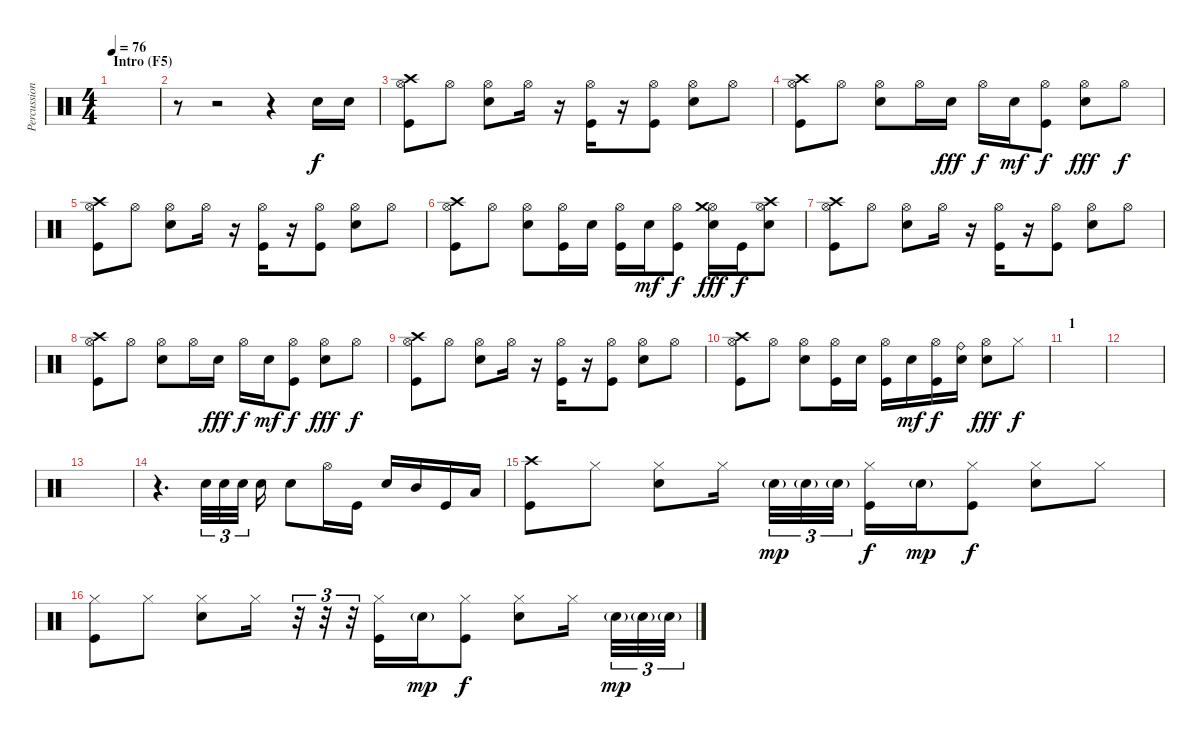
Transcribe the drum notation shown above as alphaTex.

\track ("Percussions" "Percussion") {instrument percussion}
\staff {score}
\articulation defaults
\ts (4 4)
\section ("" "Intro (F5)")
\tempo 76
\clef neutral
\ks c
|
r.8 r.2 r.4 "Snare (hit) 2".16 "Snare (hit) 2".16 |
("Crash high (hit)" "Hi-Hat (open)" "Kick (hit)").8 "Hi-Hat (open)".8 ("Hi-Hat (open)" "Snare (hit) 2").8 "Hi-Hat (open)".16 r.16 ("Hi-Hat (open)" "Kick (hit)").16 r.16 ("Hi-Hat (open)" "Kick (hit)").8 ("Hi-Hat (open)" "Snare (hit) 2").8 "Hi-Hat (open)".8 |
("Crash high (hit)" "Hi-Hat (open)" "Kick (hit)").8 "Hi-Hat (open)".8 ("Hi-Hat (open)" "Snare (hit) 2").8 "Hi-Hat (open)".16 "Snare (hit) 2".16{dy fff} "Hi-Hat (open)".16{dy f} "Snare (hit) 2".16{dy mf} ("Hi-Hat (open)" "Kick (hit)").8{dy f} ("Hi-Hat (open)" "Snare (hit) 2").8{dy fff} "Hi-Hat (open)".8{dy f} |
("Crash high (hit)" "Hi-Hat (open)" "Kick (hit)").8 "Hi-Hat (open)".8 ("Hi-Hat (open)" "Snare (hit) 2").8 "Hi-Hat (open)".16 r.16 ("Hi-Hat (open)" "Kick (hit)").16 r.16 ("Hi-Hat (open)" "Kick (hit)").8 ("Hi-Hat (open)" "Snare (hit) 2").8 "Hi-Hat (open)".8 |
("Crash high (hit)" "Hi-Hat (open)" "Kick (hit)").8 "Hi-Hat (open)".8 ("Hi-Hat (open)" "Snare (hit) 2").8 ("Hi-Hat (open)" "Kick (hit)").16 "Snare (hit) 2".16 ("Hi-Hat (open)" "Kick (hit)").16 "Snare (hit) 2".16{dy mf} ("Hi-Hat (open)" "Kick (hit)").8{dy f} ("Hi-Hat (open)" "Crash medium (hit)" "Snare (hit) 2").16{dy fff} "Kick (hit)".16{dy f} ("Hi-Hat (open)" "Crash high (hit)" "Snare (hit) 2").8 |
("Crash high (hit)" "Hi-Hat (open)" "Kick (hit)").8 "Hi-Hat (open)".8 ("Hi-Hat (open)" "Snare (hit) 2").8 "Hi-Hat (open)".16 r.16 ("Hi-Hat (open)" "Kick (hit)").16 r.16 ("Hi-Hat (open)" "Kick (hit)").8 ("Hi-Hat (open)" "Snare (hit) 2").8 "Hi-Hat (open)".8 |
("Crash high (hit)" "Hi-Hat (open)" "Kick (hit)").8 "Hi-Hat (open)".8 ("Hi-Hat (open)" "Snare (hit) 2").8 "Hi-Hat (open)".16 "Snare (hit) 2".16{dy fff} "Hi-Hat (open)".16{dy f} "Snare (hit) 2".16{dy mf} ("Hi-Hat (open)" "Kick (hit)").8{dy f} ("Hi-Hat (open)" "Snare (hit) 2").8{dy fff} "Hi-Hat (open)".8{dy f} |
("Crash high (hit)" "Hi-Hat (open)" "Kick (hit)").8 "Hi-Hat (open)".8 ("Hi-Hat (open)" "Snare (hit) 2").8 "Hi-Hat (open)".16 r.16 ("Hi-Hat (open)" "Kick (hit)").16 r.16 ("Hi-Hat (open)" "Kick (hit)").8 ("Hi-Hat (open)" "Snare (hit) 2").8 "Hi-Hat (open)".8 |
("Crash high (hit)" "Hi-Hat (open)" "Kick (hit)").8 "Hi-Hat (open)".8 ("Hi-Hat (open)" "Snare (hit) 2").8 ("Hi-Hat (open)" "Kick (hit)").16 "Snare (hit) 2".16 ("Hi-Hat (open)" "Kick (hit)").16 "Snare (hit) 2".16{dy mf} ("Hi-Hat (open)" "Kick (hit)").16{dy f} ("Ride (bell)" "Snare (hit) 2").16 ("Hi-Hat (open)" "Snare (hit) 2").8{dy fff} "Hi-Hat (closed)".8{dy f} |
\section ("" "1")
|
|
|
r.4{d} "Snare (hit) 2".32{tu (3 2)} "Snare (hit) 2".32{tu (3 2)} "Snare (hit) 2".32{tu (3 2)} "Snare (hit) 2".16 "Snare (hit) 2".8 "Hi-Hat (open)".16 "Kick (hit)".16 "Snare (hit) 2".16 "Mid Tom (hit)".16 "Kick (hit)".16 "Low Tom (hit)".16 |
("Crash high (hit)" "Kick (hit)").8 "Hi-Hat (closed)".8 ("Hi-Hat (closed)" "Snare (hit) 2").8 "Hi-Hat (closed)".16 "Snare (hit) 2"{g}.32{tu (3 2) dy mp} "Snare (hit) 2"{g}.32{tu (3 2)} "Snare (hit) 2"{g}.32{tu (3 2)} ("Hi-Hat (closed)" "Kick (hit)").16{dy f} "Snare (hit) 2"{g}.16{dy mp} ("Hi-Hat (closed)" "Kick (hit)").8{dy f} ("Hi-Hat (closed)" "Snare (hit) 2").8 "Hi-Hat (closed)".8 |
("Hi-Hat (closed)" "Kick (hit)").8 "Hi-Hat (closed)".8 ("Hi-Hat (closed)" "Snare (hit) 2").8 "Hi-Hat (closed)".16 r.32{tu (3 2)} r.32{tu (3 2)} r.32{tu (3 2)} ("Hi-Hat (closed)" "Kick (hit)").16 "Snare (hit) 2"{g}.16{dy mp} ("Hi-Hat (closed)" "Kick (hit)").8{dy f} ("Hi-Hat (closed)" "Snare (hit) 2").8 "Hi-Hat (closed)".16 "Snare (hit) 2"{g}.32{tu (3 2) dy mp} "Snare (hit) 2"{g}.32{tu (3 2)} "Snare (hit) 2"{g}.32{tu (3 2)}
